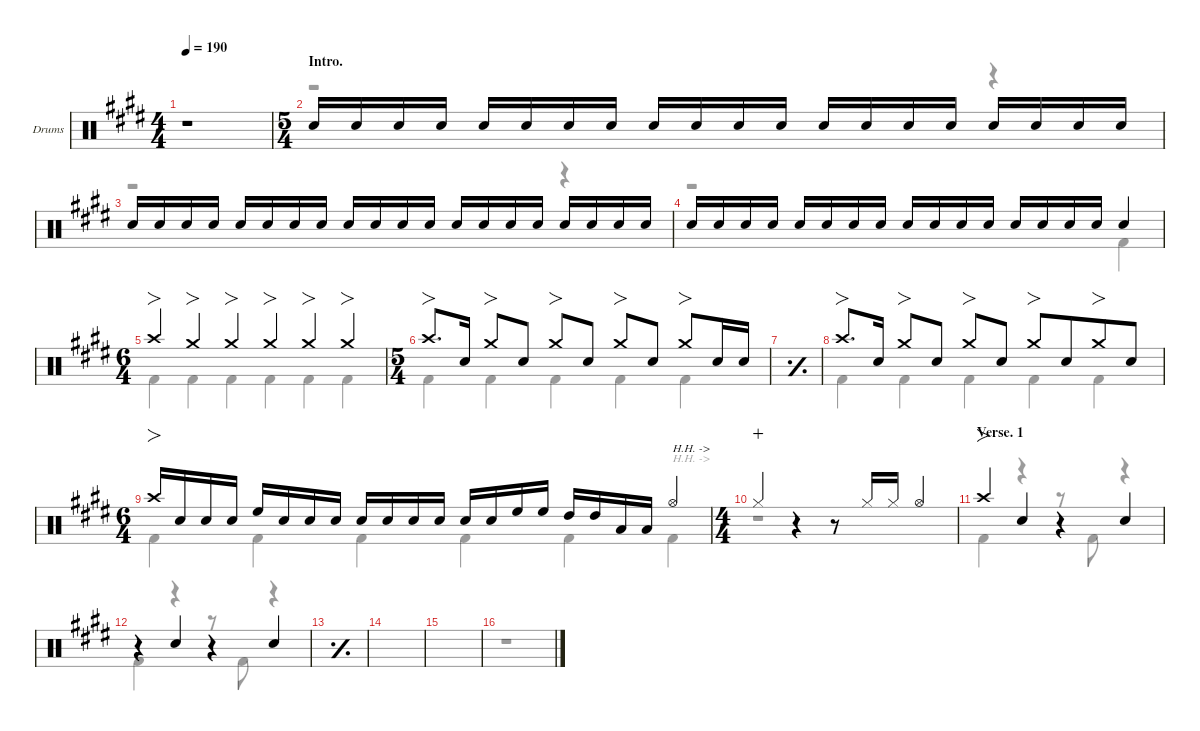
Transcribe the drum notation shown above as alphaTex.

\defaultSystemsLayout 4
\hideDynamics
\bracketExtendMode nobrackets
\firstSystemTrackNameOrientation horizontal
\track ("Drums" "Drums") {defaultSystemsLayout 4 instrument percussion}
\staff {score}
\articulation defaults
\voice
\ts (4 4)
\tempo 190
\clef neutral
\ks e
r.1{dy f beam Up} |
\ts (5 4)
\beaming (8 6 4)
\section ("" "Intro.")
\scale
0.359158 "Snare (hit) 2"{acc forcenatural}.16{beam Up} "Snare (hit) 2"{acc forcenatural}.16{dy mp beam Up} "Snare (hit) 2"{acc forcenatural}.16{dy mf beam Up} "Snare (hit) 2"{acc forcenatural}.16{dy mp beam Up beam split} "Snare (hit) 2"{acc forcenatural}.16{dy f beam Up} "Snare (hit) 2"{acc forcenatural}.16{dy mp beam Up} "Snare (hit) 2"{acc forcenatural}.16{dy mf beam Up} "Snare (hit) 2"{acc forcenatural}.16{dy mp beam Up beam split} "Snare (hit) 2"{acc forcenatural}.16{dy f beam Up} "Snare (hit) 2"{acc forcenatural}.16{dy mp beam Up} "Snare (hit) 2"{acc forcenatural}.16{dy mf beam Up} "Snare (hit) 2"{acc forcenatural}.16{dy mp beam Up beam split} "Snare (hit) 2"{acc forcenatural}.16{dy f beam Up} "Snare (hit) 2"{acc forcenatural}.16{dy mp beam Up} "Snare (hit) 2"{acc forcenatural}.16{dy mf beam Up} "Snare (hit) 2"{acc forcenatural}.16{dy mp beam Up beam split} "Snare (hit) 2"{acc forcenatural}.16{dy f beam Up} "Snare (hit) 2"{acc forcenatural}.16{dy mp beam Up} "Snare (hit) 2"{acc forcenatural}.16{dy mf beam Up} "Snare (hit) 2"{acc forcenatural}.16{dy mp beam Up} |
\scale
0.320421 "Snare (hit) 2"{acc forcenatural}.16{dy f beam Up} "Snare (hit) 2"{acc forcenatural}.16{dy mp beam Up} "Snare (hit) 2"{acc forcenatural}.16{dy mf beam Up} "Snare (hit) 2"{acc forcenatural}.16{dy mp beam Up beam split} "Snare (hit) 2"{acc forcenatural}.16{dy f beam Up} "Snare (hit) 2"{acc forcenatural}.16{dy mp beam Up} "Snare (hit) 2"{acc forcenatural}.16{dy mf beam Up} "Snare (hit) 2"{acc forcenatural}.16{dy mp beam Up beam split} "Snare (hit) 2"{acc forcenatural}.16{dy f beam Up} "Snare (hit) 2"{acc forcenatural}.16{dy mp beam Up} "Snare (hit) 2"{acc forcenatural}.16{dy mf beam Up} "Snare (hit) 2"{acc forcenatural}.16{dy mp beam Up beam split} "Snare (hit) 2"{acc forcenatural}.16{dy f beam Up} "Snare (hit) 2"{acc forcenatural}.16{dy mp beam Up} "Snare (hit) 2"{acc forcenatural}.16{dy mf beam Up} "Snare (hit) 2"{acc forcenatural}.16{dy mp beam Up beam split} "Snare (hit) 2"{acc forcenatural}.16{dy f beam Up} "Snare (hit) 2"{acc forcenatural}.16{dy mp beam Up} "Snare (hit) 2"{acc forcenatural}.16{dy mf beam Up} "Snare (hit) 2"{acc forcenatural}.16{dy mp beam Up} |
\scale
0.320421 "Snare (hit) 2"{acc forcenatural}.16{dy f beam Up} "Snare (hit) 2"{acc forcenatural}.16{dy mp beam Up} "Snare (hit) 2"{acc forcenatural}.16{dy mf beam Up} "Snare (hit) 2"{acc forcenatural}.16{dy mp beam Up beam split} "Snare (hit) 2"{acc forcenatural}.16{dy f beam Up} "Snare (hit) 2"{acc forcenatural}.16{dy mp beam Up} "Snare (hit) 2"{acc forcenatural}.16{dy mf beam Up} "Snare (hit) 2"{acc forcenatural}.16{dy mp beam Up beam split} "Snare (hit) 2"{acc forcenatural}.16{dy f beam Up} "Snare (hit) 2"{acc forcenatural}.16{dy mp beam Up} "Snare (hit) 2"{acc forcenatural}.16{dy mf beam Up} "Snare (hit) 2"{acc forcenatural}.16{dy mp beam Up beam split} "Snare (hit) 2"{acc forcenatural}.16{dy f beam Up} "Snare (hit) 2"{acc forcenatural}.16{dy mp beam Up} "Snare (hit) 2"{acc forcenatural}.16{dy mf beam Up} "Snare (hit) 2"{acc forcenatural}.16{dy mp beam Up beam split} "Snare (hit) 2"{acc forcenatural}.4{dy f beam Up} |
\ts (6 4)
\beaming (8 6 6)
"Crash high (hit)"{acc forcenatural}.4{fo beam Up} "Crash medium (hit)"{acc forcenatural}.4{fo beam Up} "Crash medium (hit)"{acc forcenatural}.4{fo beam Up} "Crash medium (hit)"{acc forcenatural}.4{fo beam Up} "Crash medium (hit)"{acc forcenatural}.4{fo beam Up} "Crash medium (hit)"{acc forcenatural}.4{fo beam Up} |
\ts (5 4)
\beaming (8 6 4)
\scale
0.359158 "Crash high (hit)"{acc forcenatural}.8{fo d beam Up} "Snare (hit) 2"{acc forcenatural}.16{beam Up beam split} "Crash medium (hit)"{acc forcenatural}.8{fo beam Up beam merge} "Snare (hit) 2"{acc forcenatural}.8{beam Up beam split} "Crash medium (hit)"{acc forcenatural}.8{fo beam Up beam merge} "Snare (hit) 2"{acc forcenatural}.8{beam Up} "Crash medium (hit)"{acc forcenatural}.8{fo beam Up} "Snare (hit) 2"{acc forcenatural}.8{beam Up beam split} "Crash medium (hit)"{acc forcenatural}.8{fo beam Up} "Snare (hit) 2"{acc forcenatural}.16{beam Up} "Snare (hit) 2"{acc forcenatural}.16{beam Up} |
\simile simple
\scale
0.320421 |
\simile none
\scale
0.32042 "Crash high (hit)"{acc forcenatural}.8{fo d beam Up} "Snare (hit) 2"{acc forcenatural}.16{beam Up beam split} "Crash medium (hit)"{acc forcenatural}.8{fo beam Up beam merge} "Snare (hit) 2"{acc forcenatural}.8{beam Up beam split} "Crash medium (hit)"{acc forcenatural}.8{fo beam Up beam merge} "Snare (hit) 2"{acc forcenatural}.8{beam Up} "Crash medium (hit)"{acc forcenatural}.8{fo beam Up beam merge} "Snare (hit) 2"{acc forcenatural}.8{beam Up beam merge} "Crash medium (hit)"{acc forcenatural}.8{fo beam Up beam merge} "Snare (hit) 2"{acc forcenatural}.8{beam Up} |
\ts (6 4)
\beaming (8 6 6)
\scale
0.511079 "Crash high (hit)"{acc forcenatural}.16{fo beam Up} "Snare (hit) 2"{acc forcenatural}.16{dy mp beam Up} "Snare (hit) 2"{acc forcenatural}.16{dy mf beam Up} "Snare (hit) 2"{acc forcenatural}.16{dy mp beam Up beam split} "High Floor Tom (hit)"{acc forcenatural}.16{dy f beam Up} "Snare (hit) 2"{acc forcenatural}.16{dy mp beam Up} "Snare (hit) 2"{acc forcenatural}.16{dy mf beam Up} "Snare (hit) 2"{acc forcenatural}.16{dy mp beam Up beam split} "Snare (hit) 2"{acc forcenatural}.16{dy f beam Up} "Snare (hit) 2"{acc forcenatural}.16{dy mp beam Up} "Snare (hit) 2"{acc forcenatural}.16{dy mf beam Up} "Snare (hit) 2"{acc forcenatural}.16{dy mp beam Up beam split} "Snare (hit) 2"{acc forcenatural}.16{dy f beam Up} "Snare (hit) 2"{acc forcenatural}.16{dy mp beam Up} "High Floor Tom (hit)"{acc forcenatural}.16{dy mf beam Up} "High Floor Tom (hit)"{acc forcenatural}.16{beam Up beam split} "High Tom (hit)"{acc forcenatural}.16{beam Up} "High Tom (hit)"{acc forcenatural}.16{beam Up} "Low Tom (hit)"{acc forcenatural}.16{beam Up} "Low Tom (hit)"{acc forcenatural}.16{beam Up} "Hi-Hat (open)"{acc forcenatural}.4{txt "H.H. ->" dy f beam Up} |
\ts (4 4)
\beaming (8 4 4)
\scale
0.488921 "Hi-Hat (closed)"{acc forcenatural}.4{dy mp wahc beam Up} r.4{beam Up} r.8{beam Up} "Hi-Hat (closed)"{acc forcenatural}.16{dy f beam Up} "Hi-Hat (closed)"{acc forcenatural}.16{dy mf beam Up} "Hi-Hat (open)"{acc forcenatural}.4{dy f beam Up} |
\section ("" "Verse. 1")
\scale
0.266618 "Crash high (hit)"{acc forcenatural}.4{fo beam Up} "Snare (hit) 2"{acc forcenatural}.4{beam Up} r.4{beam Up} "Snare (hit) 2"{acc forcenatural}.4{beam Up} |
\scale
0.244461 r.4{beam Up} "Snare (hit) 2"{acc forcenatural}.4{beam Up} r.4{beam Up} "Snare (hit) 2"{acc forcenatural}.4{beam Up} |
\simile simple
\scale
0.24446 |
\scale
0.244461 |
\scale
0.266618 |
\scale
0.244461
\voice
\clef neutral
\ottava regular
\simile none
\ks e
r.1{dy f beam Down} |
\scale
0.359158 r.1{beam Down} r.4{beam Down} |
\scale
0.320421 r.1{beam Down} r.4{beam Down} |
\scale
0.320421 r.1{beam Down} "Kick (hit) 2"{acc forcenatural}.4{beam Down} |
"Kick (hit) 2"{acc forcenatural}.4{beam Down} "Kick (hit) 2"{acc forcenatural}.4{beam Down} "Kick (hit) 2"{acc forcenatural}.4{beam Down} "Kick (hit) 2"{acc forcenatural}.4{beam Down} "Kick (hit) 2"{acc forcenatural}.4{beam Down} "Kick (hit) 2"{acc forcenatural}.4{beam Down} |
\scale
0.359158 "Kick (hit) 2"{acc forcenatural}.4{beam Down} "Kick (hit) 2"{acc forcenatural}.4{beam Down} "Kick (hit) 2"{acc forcenatural}.4{beam Down} "Kick (hit) 2"{acc forcenatural}.4{beam Down} "Kick (hit) 2"{acc forcenatural}.4{beam Down} |
\simile simple
\scale
0.320421 |
\simile none
\scale
0.32042 "Kick (hit) 2"{acc forcenatural}.4{beam Down} "Kick (hit) 2"{acc forcenatural}.4{beam Down} "Kick (hit) 2"{acc forcenatural}.4{beam Down} "Kick (hit) 2"{acc forcenatural}.4{beam Down} "Kick (hit) 2"{acc forcenatural}.4{beam Down} |
\scale
0.511079 "Kick (hit) 2"{acc forcenatural}.4{beam Down} "Kick (hit) 2"{acc forcenatural}.4{beam Down} "Kick (hit) 2"{acc forcenatural}.4{beam Down} "Kick (hit) 2"{acc forcenatural}.4{beam Down} "Kick (hit) 2"{acc forcenatural}.4{beam Down} "Kick (hit) 2"{acc forcenatural}.4{txt "H.H. ->" beam Down} |
\scale
0.488921 r.1{beam Down} |
\scale
0.266618 "Kick (hit) 2"{acc forcenatural}.4{beam Down} r.4{beam Down} r.8{beam Down} "Kick (hit) 2"{acc forcenatural}.8{beam Down} r.4{beam Down} |
\scale
0.244461 "Kick (hit) 2"{acc forcenatural}.4{beam Down} r.4{beam Down} r.8{beam Down} "Kick (hit) 2"{acc forcenatural}.8{beam Down} r.4{beam Down} |
\simile simple
\scale
0.24446 |
\scale
0.244461 |
\scale
0.266618 |
\scale
0.244461
